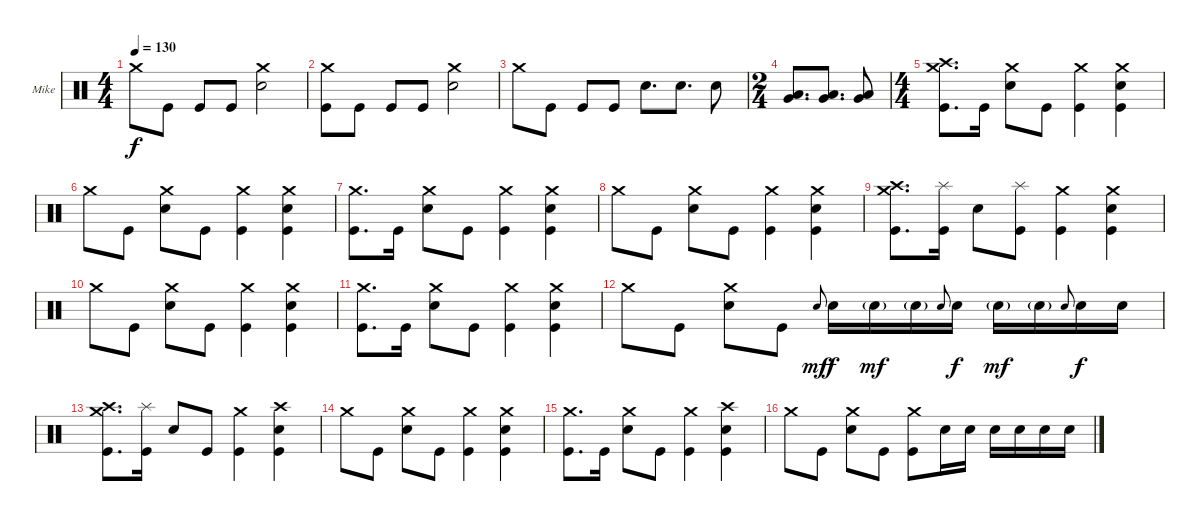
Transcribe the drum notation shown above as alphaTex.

\defaultSystemsLayout 4
\bracketExtendMode groupsimilarinstruments
\firstSystemTrackNameOrientation horizontal
\otherSystemsTrackNameOrientation horizontal
\track ("Mike Portnoy" "Mike") {instrument percussion}
\staff {score}
\articulation defaults
\ts (4 4)
\tempo 130
\clef neutral
\ks c "Crash medium (hit)".8{dy f} "Kick (hit)".8 "Kick (hit)".8 "Kick (hit)".8
("Crash medium (hit)" "Snare (hit) 2").2 |
("Crash medium (hit)" "Kick (hit)").8 "Kick (hit)".8 "Kick (hit)".8 "Kick (hit)".8 ("Crash medium (hit)" "Snare (hit) 2").2 |
"Crash medium (hit)".8 "Kick (hit)".8 "Kick (hit)".8 "Kick (hit)".8 "Snare (hit) 2".8{d} "Snare (hit) 2".8{d} "Snare (hit) 2".8 |
\ts (2 4)
("Low Tom (hit)" "Very Low Tom (hit)").8{d} ("Low Tom (hit)" "Very Low Tom (hit)").8{d} ("Low Tom (hit)" "Very Low Tom (hit)").8 |
\ts (4 4)
("Crash medium (hit)" "Crash high (hit)" "Kick (hit)").8{d} "Kick (hit)".16 ("Crash medium (hit)" "Snare (hit) 2").8 "Kick (hit)".8 ("Crash medium (hit)" "Kick (hit)").4 ("Crash medium (hit)" "Snare (hit) 2" "Kick (hit)").4 |
"Crash medium (hit)".8 "Kick (hit)".8 ("Crash medium (hit)" "Snare (hit) 2").8 "Kick (hit)".8 ("Crash medium (hit)" "Kick (hit)").4 ("Crash medium (hit)" "Snare (hit) 2" "Kick (hit)").4 |
("Crash medium (hit)" "Kick (hit)").8{d} "Kick (hit)".16 ("Crash medium (hit)" "Snare (hit) 2").8 "Kick (hit)".8 ("Crash medium (hit)" "Kick (hit)").4 ("Crash medium (hit)" "Snare (hit) 2" "Kick (hit)").4 |
"Crash medium (hit)".8 "Kick (hit)".8 ("Crash medium (hit)" "Snare (hit) 2").8 "Kick (hit)".8 ("Crash medium (hit)" "Kick (hit)").4 ("Crash medium (hit)" "Snare (hit) 2" "Kick (hit)").4 |
("Crash medium (hit)" "Crash high (hit)" "Kick (hit)").8{d} ("Splash (hit)" "Kick (hit)").16 "Snare (hit) 2".8 ("Splash (hit)" "Kick (hit)").8 ("Crash medium (hit)" "Kick (hit)").4 ("Crash medium (hit)" "Snare (hit) 2" "Kick (hit)").4 |
"Crash medium (hit)".8 "Kick (hit)".8 ("Crash medium (hit)" "Snare (hit) 2").8 "Kick (hit)".8 ("Crash medium (hit)" "Kick (hit)").4 ("Crash medium (hit)" "Snare (hit) 2" "Kick (hit)").4 |
("Crash medium (hit)" "Kick (hit)").8{d} "Kick (hit)".16 ("Crash medium (hit)" "Snare (hit) 2").8 "Kick (hit)".8 ("Crash medium (hit)" "Kick (hit)").4 ("Crash medium (hit)" "Snare (hit) 2" "Kick (hit)").4 |
"Crash medium (hit)".8 "Kick (hit)".8 ("Crash medium (hit)" "Snare (hit) 2").8 "Kick (hit)".8 "Snare (hit) 2".8{gr onbeat dy mf} "Snare (hit) 2".16{dy f} "Snare (hit) 2"{g}.16{dy mf} "Snare (hit) 2"{g}.16 "Snare (hit) 2".8{gr onbeat} "Snare (hit) 2".16{dy f} "Snare (hit) 2"{g}.16{dy mf} "Snare (hit) 2"{g}.16 "Snare (hit) 2".8{gr onbeat} "Snare (hit) 2".16{dy f} "Snare (hit) 2".16 |
("Crash medium (hit)" "Crash high (hit)" "Kick (hit)").8{d} ("Splash (hit)" "Kick (hit)").16 "Snare (hit) 2".8 "Kick (hit)".8 ("Crash medium (hit)" "Kick (hit)").4 ("Crash high (hit)" "Snare (hit) 2" "Kick (hit)").4 |
"Crash medium (hit)".8 "Kick (hit)".8 ("Crash medium (hit)" "Snare (hit) 2").8 "Kick (hit)".8 ("Crash medium (hit)" "Kick (hit)").4 ("Crash medium (hit)" "Snare (hit) 2" "Kick (hit)").4 |
("Crash medium (hit)" "Kick (hit)").8{d} "Kick (hit)".16 ("Crash medium (hit)" "Snare (hit) 2").8 "Kick (hit)".8 ("Crash medium (hit)" "Kick (hit)").4 ("Crash high (hit)" "Snare (hit) 2" "Kick (hit)").4 |
"Crash medium (hit)".8 "Kick (hit)".8 ("Crash medium (hit)" "Snare (hit) 2").8 "Kick (hit)".8 ("Crash medium (hit)" "Kick (hit)").8 "Snare (hit) 2".16 "Snare (hit) 2".16 "Snare (hit) 2".16 "Snare (hit) 2".16 "Snare (hit) 2".16 "Snare (hit) 2".16
